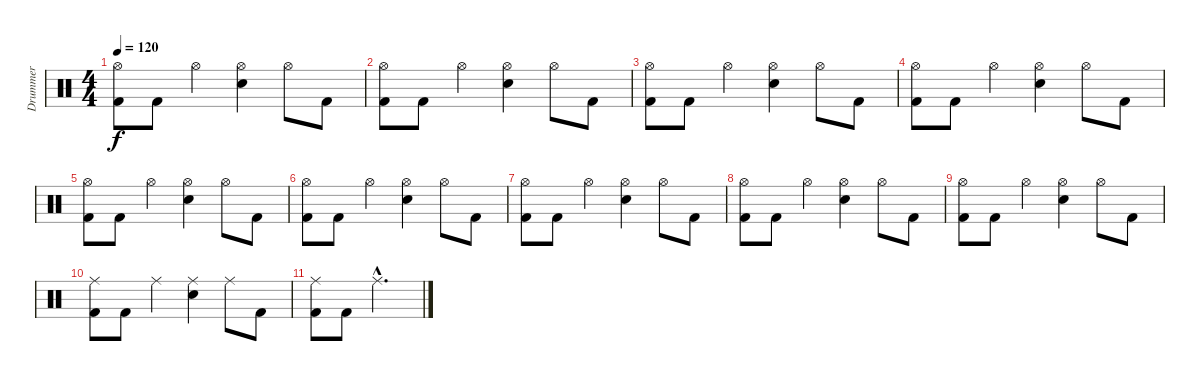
\track ("Drummer" "Drummer") {instrument percussion}
\staff {score}
\articulation defaults
\ts (4 4)
\tempo 120
\clef neutral
\ks c
("Hi-Hat (open)" "Kick (hit) 2").8{dy f} "Kick (hit) 2".8 "Hi-Hat (open)".4 ("Hi-Hat (open)" "Snare (hit) 2").4 "Hi-Hat (open)".8 "Kick (hit) 2".8 |
("Hi-Hat (open)" "Kick (hit) 2").8 "Kick (hit) 2".8 "Hi-Hat (open)".4 ("Hi-Hat (open)" "Snare (hit) 2").4 "Hi-Hat (open)".8 "Kick (hit) 2".8 |
("Hi-Hat (open)" "Kick (hit) 2").8 "Kick (hit) 2".8 "Hi-Hat (open)".4 ("Hi-Hat (open)" "Snare (hit) 2").4 "Hi-Hat (open)".8 "Kick (hit) 2".8 |
("Hi-Hat (open)" "Kick (hit) 2").8 "Kick (hit) 2".8 "Hi-Hat (open)".4 ("Hi-Hat (open)" "Snare (hit) 2").4 "Hi-Hat (open)".8 "Kick (hit) 2".8 |
("Hi-Hat (open)" "Kick (hit) 2").8 "Kick (hit) 2".8 "Hi-Hat (open)".4 ("Hi-Hat (open)" "Snare (hit) 2").4 "Hi-Hat (open)".8 "Kick (hit) 2".8 |
("Hi-Hat (open)" "Kick (hit) 2").8 "Kick (hit) 2".8 "Hi-Hat (open)".4 ("Hi-Hat (open)" "Snare (hit) 2").4 "Hi-Hat (open)".8 "Kick (hit) 2".8 |
("Hi-Hat (open)" "Kick (hit) 2").8 "Kick (hit) 2".8 "Hi-Hat (open)".4 ("Hi-Hat (open)" "Snare (hit) 2").4 "Hi-Hat (open)".8 "Kick (hit) 2".8 |
("Hi-Hat (open)" "Kick (hit) 2").8 "Kick (hit) 2".8 "Hi-Hat (open)".4 ("Hi-Hat (open)" "Snare (hit) 2").4 "Hi-Hat (open)".8 "Kick (hit) 2".8 |
("Hi-Hat (open)" "Kick (hit) 2").8 "Kick (hit) 2".8 "Hi-Hat (open)".4 ("Hi-Hat (open)" "Snare (hit) 2").4 "Hi-Hat (open)".8 "Kick (hit) 2".8 |
("Ride (middle)" "Kick (hit) 2").8 "Kick (hit) 2".8 "Ride (middle)".4 ("Ride (middle)" "Snare (hit) 2").4 "Ride (middle)".8 "Kick (hit) 2".8 |
("Ride (middle)" "Kick (hit) 2").8 "Kick (hit) 2".8 "Ride (middle)"{hac}.2{d}
